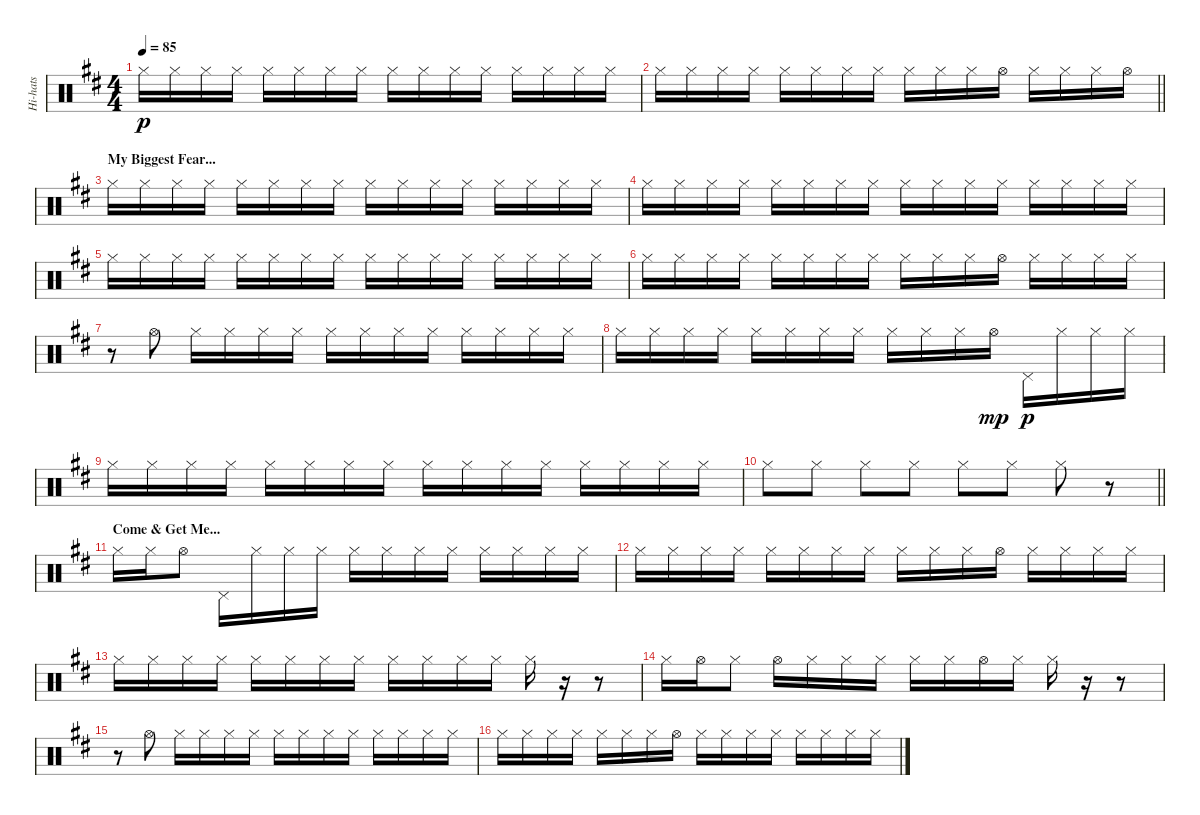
\track ("Hi-hats" "Hi-hats") {instrument percussion}
\staff {score}
\articulation defaults
\ts (4 4)
\tempo 85
\clef neutral
\ks bminor "Hi-Hat (closed)".16{dy p} "Hi-Hat (closed)".16 "Hi-Hat (closed)".16 "Hi-Hat (closed)".16 "Hi-Hat (closed)".16 "Hi-Hat (closed)".16 "Hi-Hat (closed)".16 "Hi-Hat (closed)".16 "Hi-Hat (closed)".16 "Hi-Hat (closed)".16 "Hi-Hat (closed)".16 "Hi-Hat (closed)".16 "Hi-Hat (closed)".16 "Hi-Hat (closed)".16 "Hi-Hat (closed)".16 "Hi-Hat (closed)".16
|
\barLineRight lightlight "Hi-Hat (closed)".16 "Hi-Hat (closed)".16 "Hi-Hat (closed)".16 "Hi-Hat (closed)".16 "Hi-Hat (closed)".16 "Hi-Hat (closed)".16 "Hi-Hat (closed)".16 "Hi-Hat (closed)".16 "Hi-Hat (closed)".16 "Hi-Hat (closed)".16 "Hi-Hat (closed)".16 "Hi-Hat (open)".16 "Hi-Hat (closed)".16 "Hi-Hat (closed)".16 "Hi-Hat (closed)".16 "Hi-Hat (open)".16
|
\section ("" "My Biggest Fear...")
"Hi-Hat (closed)".16 "Hi-Hat (closed)".16 "Hi-Hat (closed)".16 "Hi-Hat (closed)".16 "Hi-Hat (closed)".16 "Hi-Hat (closed)".16 "Hi-Hat (closed)".16 "Hi-Hat (closed)".16 "Hi-Hat (closed)".16 "Hi-Hat (closed)".16 "Hi-Hat (closed)".16 "Hi-Hat (closed)".16 "Hi-Hat (closed)".16 "Hi-Hat (closed)".16 "Hi-Hat (closed)".16 "Hi-Hat (closed)".16 |
"Hi-Hat (closed)".16 "Hi-Hat (closed)".16 "Hi-Hat (closed)".16 "Hi-Hat (closed)".16 "Hi-Hat (closed)".16 "Hi-Hat (closed)".16 "Hi-Hat (closed)".16 "Hi-Hat (closed)".16 "Hi-Hat (closed)".16 "Hi-Hat (closed)".16 "Hi-Hat (closed)".16 "Hi-Hat (closed)".16 "Hi-Hat (closed)".16 "Hi-Hat (closed)".16 "Hi-Hat (closed)".16 "Hi-Hat (closed)".16 |
"Hi-Hat (closed)".16 "Hi-Hat (closed)".16 "Hi-Hat (closed)".16 "Hi-Hat (closed)".16 "Hi-Hat (closed)".16 "Hi-Hat (closed)".16 "Hi-Hat (closed)".16 "Hi-Hat (closed)".16 "Hi-Hat (closed)".16 "Hi-Hat (closed)".16 "Hi-Hat (closed)".16 "Hi-Hat (closed)".16 "Hi-Hat (closed)".16 "Hi-Hat (closed)".16 "Hi-Hat (closed)".16 "Hi-Hat (closed)".16 |
"Hi-Hat (closed)".16 "Hi-Hat (closed)".16 "Hi-Hat (closed)".16 "Hi-Hat (closed)".16 "Hi-Hat (closed)".16 "Hi-Hat (closed)".16 "Hi-Hat (closed)".16 "Hi-Hat (closed)".16 "Hi-Hat (closed)".16 "Hi-Hat (closed)".16 "Hi-Hat (closed)".16 "Hi-Hat (open)".16 "Hi-Hat (closed)".16 "Hi-Hat (closed)".16 "Hi-Hat (closed)".16 "Hi-Hat (closed)".16 |
r.8 "Hi-Hat (open)".8 "Hi-Hat (closed)".16 "Hi-Hat (closed)".16 "Hi-Hat (closed)".16 "Hi-Hat (closed)".16 "Hi-Hat (closed)".16 "Hi-Hat (closed)".16 "Hi-Hat (closed)".16 "Hi-Hat (closed)".16 "Hi-Hat (closed)".16 "Hi-Hat (closed)".16 "Hi-Hat (closed)".16 "Hi-Hat (closed)".16 |
"Hi-Hat (closed)".16 "Hi-Hat (closed)".16 "Hi-Hat (closed)".16 "Hi-Hat (closed)".16 "Hi-Hat (closed)".16 "Hi-Hat (closed)".16 "Hi-Hat (closed)".16 "Hi-Hat (closed)".16 "Hi-Hat (closed)".16 "Hi-Hat (closed)".16 "Hi-Hat (closed)".16 "Hi-Hat (open)".16{dy mp} "Pedal Hi-Hat (hit)".16{dy p} "Hi-Hat (closed)".16 "Hi-Hat (closed)".16 "Hi-Hat (closed)".16 |
"Hi-Hat (closed)".16 "Hi-Hat (closed)".16 "Hi-Hat (closed)".16 "Hi-Hat (closed)".16 "Hi-Hat (closed)".16 "Hi-Hat (closed)".16 "Hi-Hat (closed)".16 "Hi-Hat (closed)".16 "Hi-Hat (closed)".16 "Hi-Hat (closed)".16 "Hi-Hat (closed)".16 "Hi-Hat (closed)".16 "Hi-Hat (closed)".16 "Hi-Hat (closed)".16 "Hi-Hat (closed)".16 "Hi-Hat (closed)".16 |
\barLineRight lightlight "Hi-Hat (closed)".8 "Hi-Hat (closed)".8 "Hi-Hat (closed)".8 "Hi-Hat (closed)".8 "Hi-Hat (closed)".8 "Hi-Hat (closed)".8 "Hi-Hat (closed)".8
r.8 |
\section ("" "Come & Get Me...")
"Hi-Hat (closed)".16 "Hi-Hat (closed)".16 "Hi-Hat (open)".8 "Pedal Hi-Hat (hit)".16 "Hi-Hat (closed)".16 "Hi-Hat (closed)".16 "Hi-Hat (closed)".16 "Hi-Hat (closed)".16 "Hi-Hat (closed)".16 "Hi-Hat (closed)".16 "Hi-Hat (closed)".16 "Hi-Hat (closed)".16 "Hi-Hat (closed)".16 "Hi-Hat (closed)".16 "Hi-Hat (closed)".16 |
"Hi-Hat (closed)".16 "Hi-Hat (closed)".16 "Hi-Hat (closed)".16 "Hi-Hat (closed)".16 "Hi-Hat (closed)".16 "Hi-Hat (closed)".16 "Hi-Hat (closed)".16 "Hi-Hat (closed)".16 "Hi-Hat (closed)".16 "Hi-Hat (closed)".16 "Hi-Hat (closed)".16 "Hi-Hat (open)".16 "Hi-Hat (closed)".16 "Hi-Hat (closed)".16 "Hi-Hat (closed)".16 "Hi-Hat (closed)".16 |
"Hi-Hat (closed)".16 "Hi-Hat (closed)".16 "Hi-Hat (closed)".16 "Hi-Hat (closed)".16 "Hi-Hat (closed)".16 "Hi-Hat (closed)".16 "Hi-Hat (closed)".16 "Hi-Hat (closed)".16 "Hi-Hat (closed)".16 "Hi-Hat (closed)".16 "Hi-Hat (closed)".16 "Hi-Hat (closed)".16 "Hi-Hat (closed)".16 r.16 r.8 |
"Hi-Hat (closed)".16 "Hi-Hat (open)".16 "Hi-Hat (closed)".8 "Hi-Hat (open)".16 "Hi-Hat (closed)".16 "Hi-Hat (closed)".16 "Hi-Hat (closed)".16 "Hi-Hat (closed)".16 "Hi-Hat (closed)".16 "Hi-Hat (open)".16 "Hi-Hat (closed)".16 "Hi-Hat (closed)".16 r.16 r.8 |
r.8 "Hi-Hat (open)".8 "Hi-Hat (closed)".16 "Hi-Hat (closed)".16 "Hi-Hat (closed)".16 "Hi-Hat (closed)".16 "Hi-Hat (closed)".16 "Hi-Hat (closed)".16 "Hi-Hat (closed)".16 "Hi-Hat (closed)".16 "Hi-Hat (closed)".16 "Hi-Hat (closed)".16 "Hi-Hat (closed)".16 "Hi-Hat (closed)".16 |
"Hi-Hat (closed)".16 "Hi-Hat (closed)".16 "Hi-Hat (closed)".16 "Hi-Hat (closed)".16 "Hi-Hat (closed)".16 "Hi-Hat (closed)".16 "Hi-Hat (closed)".16 "Hi-Hat (open)".16 "Hi-Hat (closed)".16 "Hi-Hat (closed)".16 "Hi-Hat (closed)".16 "Hi-Hat (closed)".16 "Hi-Hat (closed)".16 "Hi-Hat (closed)".16 "Hi-Hat (closed)".16 "Hi-Hat (closed)".16
